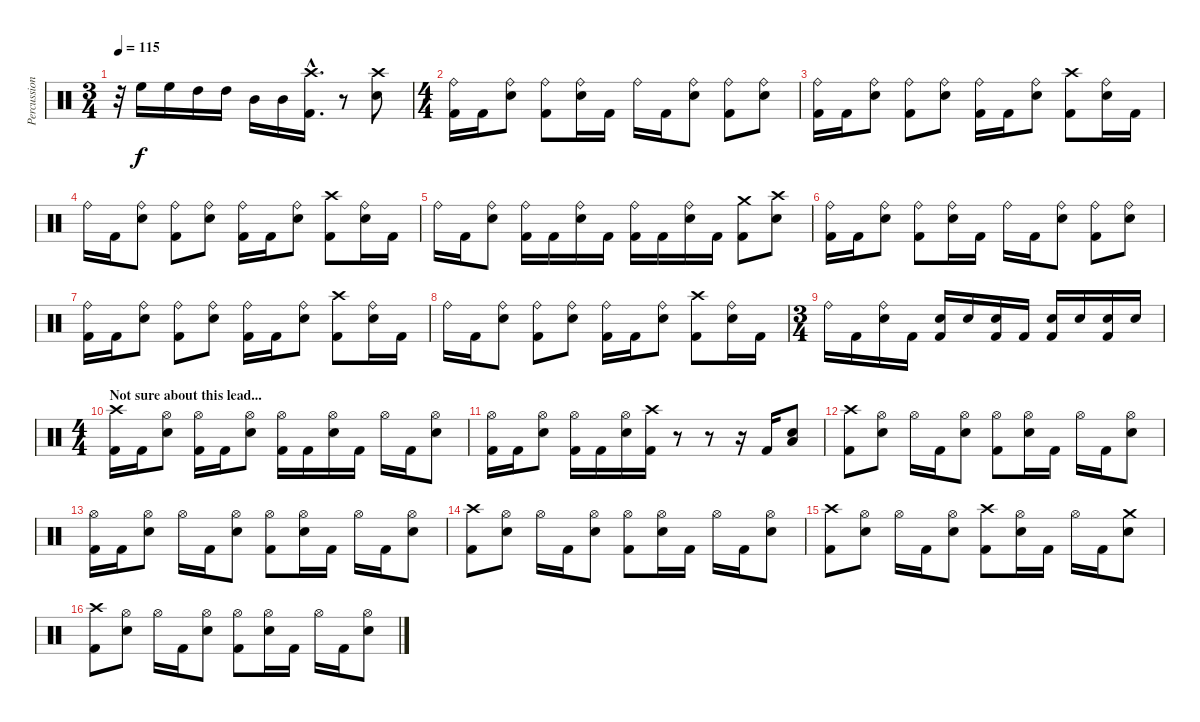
\track ("Percussion" "Percussion") {instrument percussion}
\staff {score}
\articulation defaults
\ts (3 4)
\tempo 115
\clef neutral
\ks c
r.32{dy f} "High Floor Tom (hit)".16 "High Floor Tom (hit)".16 "High Tom (hit)".16 "High Tom (hit)".16 "Mid Tom (hit)".16 "Mid Tom (hit)".16 ("Kick (hit) 2"{hac} "Crash high (hit)"{hac}).16{d} r.8 ("Electric Snare (hit)" "Crash high (hit)").8 |
\ts (4 4)
("Kick (hit) 2" "Ride (bell)").16 "Kick (hit) 2".16 ("Electric Snare (hit)" "Ride (bell)").8 ("Kick (hit) 2" "Ride (bell)").8 ("Electric Snare (hit)" "Ride (bell)").16 "Kick (hit) 2".16 "Ride (bell)".16 "Kick (hit) 2".16 ("Electric Snare (hit)" "Ride (bell)").8 ("Kick (hit) 2" "Ride (bell)").8 ("Electric Snare (hit)" "Ride (bell)").8 |
("Kick (hit) 2" "Ride (bell)").16 "Kick (hit) 2".16 ("Electric Snare (hit)" "Ride (bell)").8 ("Kick (hit) 2" "Ride (bell)").8 ("Electric Snare (hit)" "Ride (bell)").8 ("Kick (hit) 2" "Ride (bell)").16 "Kick (hit) 2".16 ("Electric Snare (hit)" "Ride (bell)").8 ("Kick (hit) 2" "Crash high (hit)").8 ("Electric Snare (hit)" "Ride (bell)").16 "Kick (hit) 2".16 |
"Ride (bell)".16 "Kick (hit) 2".16 ("Electric Snare (hit)" "Ride (bell)").8 ("Kick (hit) 2" "Ride (bell)").8 ("Electric Snare (hit)" "Ride (bell)").8 ("Kick (hit) 2" "Ride (bell)").16 "Kick (hit) 2".16 ("Electric Snare (hit)" "Ride (bell)").8 ("Kick (hit) 2" "Crash high (hit)").8 ("Electric Snare (hit)" "Ride (bell)").16 "Kick (hit) 2".16 |
"Ride (bell)".16 "Kick (hit) 2".16 ("Electric Snare (hit)" "Ride (bell)").8 ("Kick (hit) 2" "Ride (bell)").16 "Kick (hit) 2".16 ("Electric Snare (hit)" "Ride (bell)").16 "Kick (hit) 2".16 ("Kick (hit) 2" "Ride (bell)").16 "Kick (hit) 2".16 ("Electric Snare (hit)" "Ride (bell)").16 "Kick (hit) 2".16 ("Kick (hit) 2" "Crash medium (hit)").8 ("Electric Snare (hit)" "Crash high (hit)").8 |
("Kick (hit) 2" "Ride (bell)").16 "Kick (hit) 2".16 ("Electric Snare (hit)" "Ride (bell)").8 ("Kick (hit) 2" "Ride (bell)").8 ("Electric Snare (hit)" "Ride (bell)").16 "Kick (hit) 2".16 "Ride (bell)".16 "Kick (hit) 2".16 ("Electric Snare (hit)" "Ride (bell)").8 ("Kick (hit) 2" "Ride (bell)").8 ("Electric Snare (hit)" "Ride (bell)").8 |
("Kick (hit) 2" "Ride (bell)").16 "Kick (hit) 2".16 ("Electric Snare (hit)" "Ride (bell)").8 ("Kick (hit) 2" "Ride (bell)").8 ("Electric Snare (hit)" "Ride (bell)").8 ("Kick (hit) 2" "Ride (bell)").16 "Kick (hit) 2".16 ("Electric Snare (hit)" "Ride (bell)").8 ("Kick (hit) 2" "Crash high (hit)").8 ("Electric Snare (hit)" "Ride (bell)").16 "Kick (hit) 2".16 |
"Ride (bell)".16 "Kick (hit) 2".16 ("Electric Snare (hit)" "Ride (bell)").8 ("Kick (hit) 2" "Ride (bell)").8 ("Electric Snare (hit)" "Ride (bell)").8 ("Kick (hit) 2" "Ride (bell)").16 "Kick (hit) 2".16 ("Electric Snare (hit)" "Ride (bell)").8 ("Kick (hit) 2" "Crash high (hit)").8 ("Electric Snare (hit)" "Ride (bell)").16 "Kick (hit) 2".16 |
\ts (3 4)
"Ride (bell)".16 "Kick (hit) 2".16 ("Electric Snare (hit)" "Ride (bell)").16 "Kick (hit) 2".16 ("Electric Snare (hit)" "Kick (hit) 2").16 "Electric Snare (hit)".16 ("Electric Snare (hit)" "Kick (hit) 2").16 "Kick (hit) 2".16 ("Electric Snare (hit)" "Kick (hit) 2").16 "Electric Snare (hit)".16 ("Electric Snare (hit)" "Kick (hit) 2").16 "Electric Snare (hit)".16 |
\ts (4 4)
\section ("" "Not sure about this lead...")
("Kick (hit) 2" "Crash high (hit)").16 "Kick (hit) 2".16 ("Electric Snare (hit)" "Hi-Hat (open)").8 ("Kick (hit) 2" "Hi-Hat (open)").16 "Kick (hit) 2".16 ("Electric Snare (hit)" "Hi-Hat (open)").8 ("Kick (hit) 2" "Hi-Hat (open)").16 "Kick (hit) 2".16 ("Electric Snare (hit)" "Hi-Hat (open)").16 "Kick (hit) 2".16 "Hi-Hat (open)".16 "Kick (hit) 2".16 ("Electric Snare (hit)" "Hi-Hat (open)").8 |
("Kick (hit) 2" "Hi-Hat (open)").16 "Kick (hit) 2".16 ("Electric Snare (hit)" "Hi-Hat (open)").8 ("Kick (hit) 2" "Hi-Hat (open)").16 "Kick (hit) 2".16 ("Electric Snare (hit)" "Hi-Hat (open)").16 ("Kick (hit) 2" "Crash high (hit)").16 r.8 r.8 r.16 "Kick (hit) 2".16 ("Electric Snare (hit)" "Low Tom (hit)").8 |
("Kick (hit) 2" "Crash high (hit)").8 ("Electric Snare (hit)" "Hi-Hat (open)").8 "Hi-Hat (open)".16 "Kick (hit) 2".16 ("Electric Snare (hit)" "Hi-Hat (open)").8 ("Kick (hit) 2" "Hi-Hat (open)").8 ("Electric Snare (hit)" "Hi-Hat (open)").16 "Kick (hit) 2".16 "Hi-Hat (open)".16 "Kick (hit) 2".16 ("Electric Snare (hit)" "Hi-Hat (open)").8 |
("Kick (hit) 2" "Hi-Hat (open)").16 "Kick (hit) 2".16 ("Electric Snare (hit)" "Hi-Hat (open)").8 "Hi-Hat (open)".16 "Kick (hit) 2".16 ("Electric Snare (hit)" "Hi-Hat (open)").8 ("Kick (hit) 2" "Hi-Hat (open)").8 ("Electric Snare (hit)" "Hi-Hat (open)").16 "Kick (hit) 2".16 "Hi-Hat (open)".16 "Kick (hit) 2".16 ("Electric Snare (hit)" "Hi-Hat (open)").8 |
("Kick (hit) 2" "Crash high (hit)").8 ("Electric Snare (hit)" "Hi-Hat (open)").8 "Hi-Hat (open)".16 "Kick (hit) 2".16 ("Electric Snare (hit)" "Hi-Hat (open)").8 ("Kick (hit) 2" "Hi-Hat (open)").8 ("Electric Snare (hit)" "Hi-Hat (open)").16 "Kick (hit) 2".16 "Hi-Hat (open)".16 "Kick (hit) 2".16 ("Electric Snare (hit)" "Hi-Hat (open)").8 |
("Kick (hit) 2" "Crash high (hit)").8 ("Electric Snare (hit)" "Hi-Hat (open)").8 "Hi-Hat (open)".16 "Kick (hit) 2".16 ("Electric Snare (hit)" "Hi-Hat (open)").8 ("Kick (hit) 2" "Crash high (hit)").8 ("Electric Snare (hit)" "Hi-Hat (open)").16 "Kick (hit) 2".16 "Hi-Hat (open)".16 "Kick (hit) 2".16 ("Electric Snare (hit)" "Crash medium (hit)").8 |
("Kick (hit) 2" "Crash high (hit)").8 ("Electric Snare (hit)" "Hi-Hat (open)").8 "Hi-Hat (open)".16 "Kick (hit) 2".16 ("Electric Snare (hit)" "Hi-Hat (open)").8 ("Kick (hit) 2" "Hi-Hat (open)").8 ("Electric Snare (hit)" "Hi-Hat (open)").16 "Kick (hit) 2".16 "Hi-Hat (open)".16 "Kick (hit) 2".16 ("Electric Snare (hit)" "Hi-Hat (open)").8
